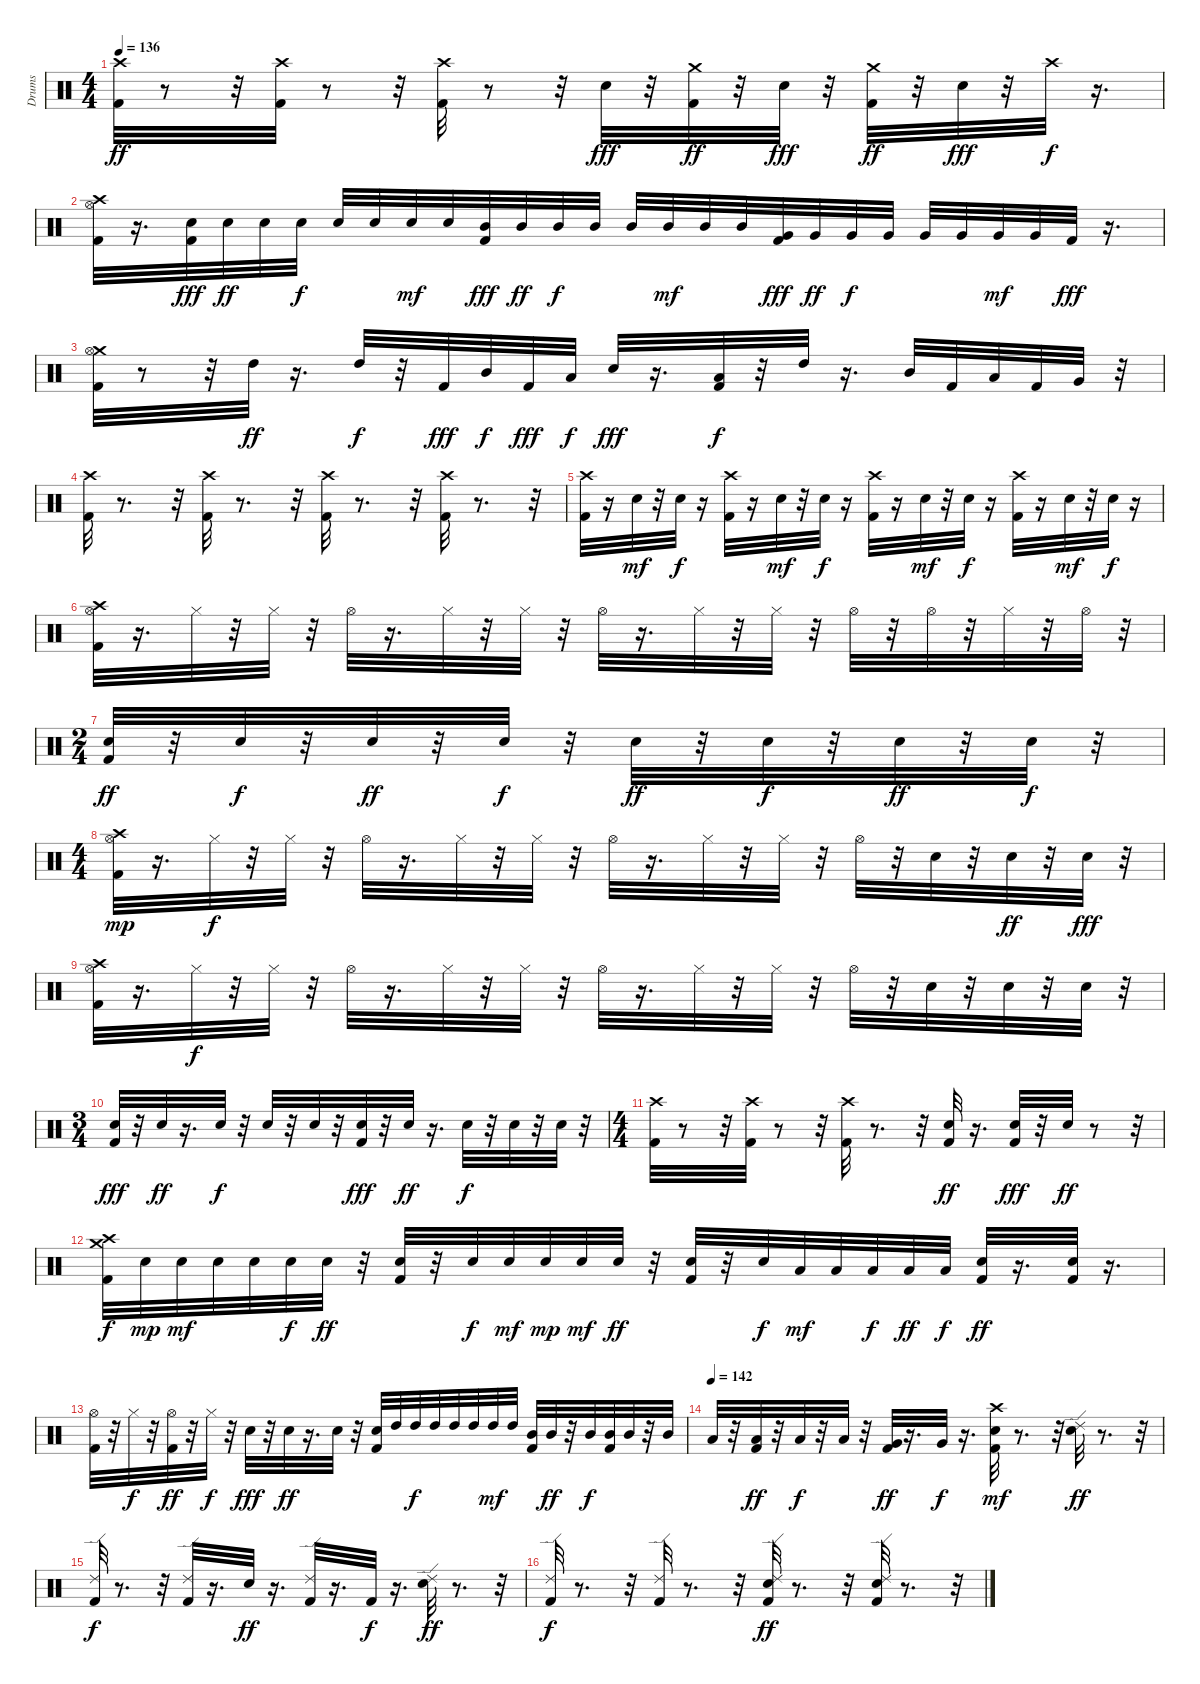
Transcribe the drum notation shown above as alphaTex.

\track ("Drums" "Drums") {instrument percussion}
\staff {score}
\articulation defaults
\ts (4 4)
\tempo 136
\clef neutral
\ks c
("Crash high (hit)" "Kick (hit) 2").32{dy ff} r.8 r.32 ("Crash high (hit)" "Kick (hit) 2").32 r.8 r.32 ("Crash high (hit)" "Kick (hit) 2").32 r.8 r.32 "Electric Snare (hit)".32{dy fff} r.32 ("Crash medium (hit)" "Kick (hit) 2").32{dy ff} r.32 "Electric Snare (hit)".32{dy fff} r.32 ("Crash medium (hit)" "Kick (hit) 2").32{dy ff} r.32 "Electric Snare (hit)".32{dy fff} r.32 "Crash high (hit)".32{dy f} r.16{d} |
("Crash high (hit)" "Hi-Hat (open)" "Kick (hit) 2").32 r.16{d} ("Electric Snare (hit)" "Kick (hit) 2").32{dy fff} "Electric Snare (hit)".32{dy ff} "Electric Snare (hit)".32 "Electric Snare (hit)".32{dy f} "Electric Snare (hit)".32 "Electric Snare (hit)".32 "Electric Snare (hit)".32{dy mf} "Electric Snare (hit)".32 ("Mid Tom (hit)" "Kick (hit) 2").32{dy fff} "Mid Tom (hit)".32{dy ff} "Mid Tom (hit)".32{dy f} "Mid Tom (hit)".32 "Mid Tom (hit)".32 "Mid Tom (hit)".32{dy mf} "Mid Tom (hit)".32 "Mid Tom (hit)".32 ("Very Low Tom (hit)" "Kick (hit) 2").32{dy fff} "Very Low Tom (hit)".32{dy ff} "Very Low Tom (hit)".32{dy f} "Very Low Tom (hit)".32 "Very Low Tom (hit)".32 "Very Low Tom (hit)".32 "Very Low Tom (hit)".32{dy mf} "Very Low Tom (hit)".32 "Kick (hit) 2".32{dy fff} r.16{d} |
("Crash medium (hit)" "Hi-Hat (open)" "Kick (hit) 2").32 r.8 r.32 "High Tom (hit)".32{dy ff} r.16{d} "High Tom (hit)".32{dy f} r.32 "Kick (hit) 2".32{dy fff} "Mid Tom (hit)".32{dy f} "Kick (hit) 2".32{dy fff} "Low Tom (hit)".32{dy f} "Electric Snare (hit)".32{dy fff} r.16{d} ("Low Floor Tom (hit)" "Kick (hit) 2").32{dy f} r.32 "High Tom (hit)".32 r.16{d} "Mid Tom (hit)".32 "Kick (hit) 2".32 "Low Tom (hit)".32 "Kick (hit) 2".32 "Very Low Tom (hit)".32 r.32 |
("Crash high (hit)" "Kick (hit) 2").32 r.8{d} r.32 ("Crash high (hit)" "Kick (hit) 2").32 r.8{d} r.32 ("Crash high (hit)" "Kick (hit) 2").32 r.8{d} r.32 ("Crash high (hit)" "Kick (hit) 2").32 r.8{d} r.32 |
("Crash high (hit)" "Kick (hit) 2").32 r.16 "Electric Snare (hit)".32{dy mf} r.32 "Electric Snare (hit)".32{dy f} r.16 ("Crash high (hit)" "Kick (hit) 2").32 r.16 "Electric Snare (hit)".32{dy mf} r.32 "Electric Snare (hit)".32{dy f} r.16 ("Crash high (hit)" "Kick (hit) 2").32 r.16 "Electric Snare (hit)".32{dy mf} r.32 "Electric Snare (hit)".32{dy f} r.16 ("Crash high (hit)" "Kick (hit) 2").32 r.16 "Electric Snare (hit)".32{dy mf} r.32 "Electric Snare (hit)".32{dy f} r.16 |
("Crash high (hit)" "Hi-Hat (open)" "Kick (hit) 2").32 r.16{d} "Hi-Hat (closed)".32 r.32 "Hi-Hat (closed)".32 r.32 "Hi-Hat (open)".32 r.16{d} "Hi-Hat (closed)".32 r.32 "Hi-Hat (closed)".32 r.32 "Hi-Hat (open)".32 r.16{d} "Hi-Hat (closed)".32 r.32 "Hi-Hat (closed)".32 r.32 "Hi-Hat (open)".32 r.32 "Hi-Hat (open)".32 r.32 "Hi-Hat (closed)".32 r.32 "Hi-Hat (open)".32 r.32 |
\ts (2 4)
("Electric Snare (hit)" "Kick (hit) 2").32{dy ff} r.32 "Electric Snare (hit)".32{dy f} r.32 "Electric Snare (hit)".32{dy ff} r.32 "Electric Snare (hit)".32{dy f} r.32 "Electric Snare (hit)".32{dy ff} r.32 "Electric Snare (hit)".32{dy f} r.32 "Electric Snare (hit)".32{dy ff} r.32 "Electric Snare (hit)".32{dy f} r.32 |
\ts (4 4)
("Crash high (hit)" "Hi-Hat (open)" "Kick (hit) 2").32{dy mp} r.16{d} "Hi-Hat (closed)".32{dy f} r.32 "Hi-Hat (closed)".32 r.32 "Hi-Hat (open)".32 r.16{d} "Hi-Hat (closed)".32 r.32 "Hi-Hat (closed)".32 r.32 "Hi-Hat (open)".32 r.16{d} "Hi-Hat (closed)".32 r.32 "Hi-Hat (closed)".32 r.32 "Hi-Hat (open)".32 r.32 "Electric Snare (hit)".32 r.32 "Electric Snare (hit)".32{dy ff} r.32 "Electric Snare (hit)".32{dy fff} r.32 |
("Crash high (hit)" "Hi-Hat (open)" "Kick (hit) 2").32 r.16{d} "Hi-Hat (closed)".32{dy f} r.32 "Hi-Hat (closed)".32 r.32 "Hi-Hat (open)".32 r.16{d} "Hi-Hat (closed)".32 r.32 "Hi-Hat (closed)".32 r.32 "Hi-Hat (open)".32 r.16{d} "Hi-Hat (closed)".32 r.32 "Hi-Hat (closed)".32 r.32 "Hi-Hat (open)".32 r.32 "Electric Snare (hit)".32 r.32 "Electric Snare (hit)".32 r.32 "Electric Snare (hit)".32 r.32 |
\ts (3 4)
("Electric Snare (hit)" "Kick (hit) 2").32{dy fff} r.32 "Electric Snare (hit)".32{dy ff} r.16{d} "Electric Snare (hit)".32{dy f} r.32 "Electric Snare (hit)".32 r.32 "Electric Snare (hit)".32 r.32 ("Electric Snare (hit)" "Kick (hit) 2").32{dy fff} r.32 "Electric Snare (hit)".32{dy ff} r.16{d} "Electric Snare (hit)".32{dy f} r.32 "Electric Snare (hit)".32 r.32 "Electric Snare (hit)".32 r.32 |
\ts (4 4)
("Crash high (hit)" "Kick (hit) 2").32 r.8 r.32 ("Crash high (hit)" "Kick (hit) 2").32 r.8 r.32 ("Crash high (hit)" "Kick (hit) 2").32 r.8{d} r.32 ("Electric Snare (hit)" "Kick (hit) 2").32{dy ff} r.16{d} ("Electric Snare (hit)" "Kick (hit) 2").32{dy fff} r.32 "Electric Snare (hit)".32{dy ff} r.8 r.32 |
("Crash medium (hit)" "Crash high (hit)" "Kick (hit) 2").32{dy f} "Electric Snare (hit)".32{dy mp} "Electric Snare (hit)".32{dy mf} "Electric Snare (hit)".32 "Electric Snare (hit)".32 "Electric Snare (hit)".32{dy f} "Electric Snare (hit)".32{dy ff} r.32 ("Electric Snare (hit)" "Kick (hit) 2").32 r.32 "Electric Snare (hit)".32{dy f} "Electric Snare (hit)".32{dy mf} "Electric Snare (hit)".32{dy mp} "Electric Snare (hit)".32{dy mf} "Electric Snare (hit)".32{dy ff} r.32 ("Electric Snare (hit)" "Kick (hit) 2").32 r.32 "Electric Snare (hit)".32{dy f} "Low Tom (hit)".32{dy mf} "Low Tom (hit)".32 "Low Tom (hit)".32{dy f} "Low Tom (hit)".32{dy ff} "Low Tom (hit)".32{dy f} ("Electric Snare (hit)" "Kick (hit) 2").32{dy ff} r.16{d} ("Electric Snare (hit)" "Kick (hit) 2").32 r.16{d} |
("Hi-Hat (open)" "Kick (hit) 2").32 r.32 "Hi-Hat (closed)".32{dy f} r.32 ("Hi-Hat (open)" "Kick (hit) 2").32{dy ff} r.32 "Hi-Hat (closed)".32{dy f} r.32 "Electric Snare (hit)".32{dy fff} r.32 "Electric Snare (hit)".32{dy ff} r.16{d} "Electric Snare (hit)".32 r.32 ("Electric Snare (hit)" "Kick (hit) 2").32 "High Tom (hit)".32 "High Tom (hit)".32{dy f} "High Tom (hit)".32 "High Tom (hit)".32 "High Tom (hit)".32 "High Tom (hit)".32{dy mf} "High Tom (hit)".32 ("Mid Tom (hit)" "Kick (hit) 2").32 "Mid Tom (hit)".32{dy ff} r.32 "Mid Tom (hit)".32{dy f} ("Mid Tom (hit)" "Kick (hit) 2").32 "Mid Tom (hit)".32 r.32 "Mid Tom (hit)".32 |
\tempo (142)
"Low Tom (hit)".32 r.32 ("Low Tom (hit)" "Kick (hit) 2").32{dy ff} r.32 "Low Tom (hit)".32{dy f} r.32 "Low Tom (hit)".32 r.32 ("Very Low Tom (hit)" "Kick (hit) 2").32{dy ff} r.16{d} "Very Low Tom (hit)".32{dy f} r.16{d} ("Electric Snare (hit)" "Crash high (hit)" "Kick (hit) 2").32{dy mf} r.8{d} r.32 ("Electric Snare (hit)" "Ride (edge) 2").32{dy ff} r.8{d} r.32 |
("Ride (edge) 2" "Kick (hit) 2").32{dy f} r.8{d} r.32 ("Ride (edge) 2" "Kick (hit) 2").32 r.16{d} "Electric Snare (hit)".32{dy ff} r.16{d} ("Ride (edge) 2" "Kick (hit) 2").32 r.16{d} "Kick (hit) 2".32{dy f} r.16{d} ("Electric Snare (hit)" "Ride (edge) 2").32{dy ff} r.8{d} r.32 |
("Ride (edge) 2" "Kick (hit) 2").32{dy f} r.8{d} r.32 ("Ride (edge) 2" "Kick (hit) 2").32 r.8{d} r.32 ("Electric Snare (hit)" "Ride (edge) 2" "Kick (hit) 2").32{dy ff} r.8{d} r.32 ("Electric Snare (hit)" "Ride (edge) 2" "Kick (hit) 2").32 r.8{d} r.32
